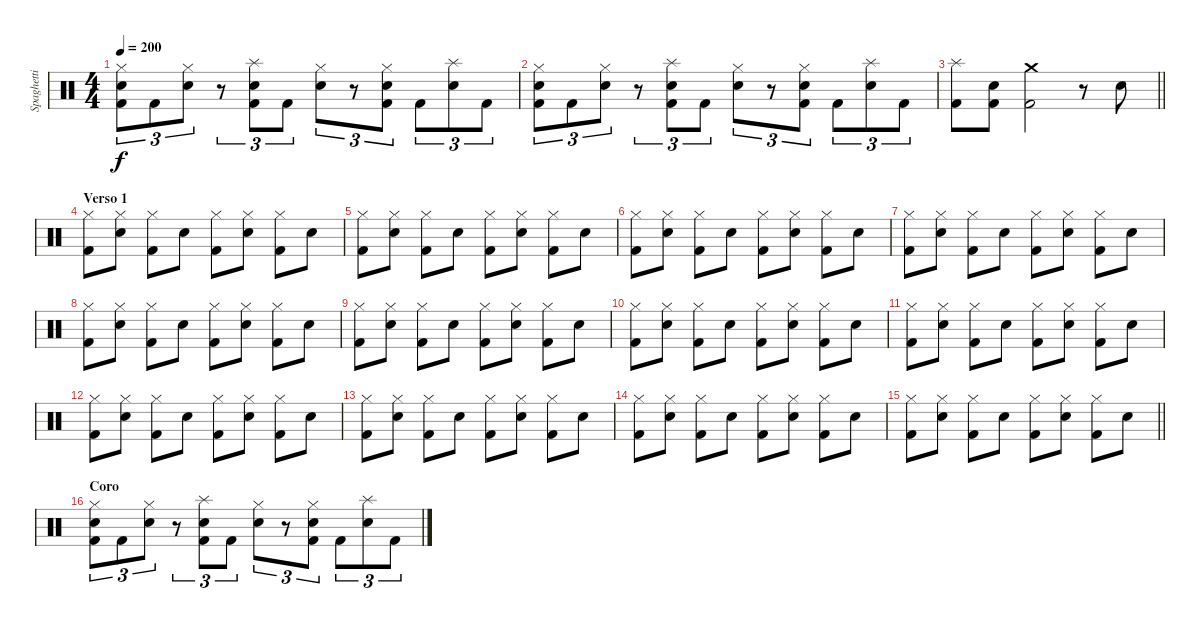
\track ("Spaghetti" "Spaghetti") {instrument percussion}
\staff {score}
\articulation defaults
\ts (4 4)
\tempo 200
\clef neutral
\ks c
("Hi-Hat (closed)" "Snare (hit) 2" "Kick (hit) 2").8{tu (3 2) dy f} "Kick (hit) 2".8{tu (3 2)} ("Hi-Hat (closed)" "Snare (hit) 2").8{tu (3 2)} r.8{tu (3 2)} ("Splash (hit)" "Snare (hit) 2" "Kick (hit) 2").8{tu (3 2)} "Kick (hit) 2".8{tu (3 2)} ("Hi-Hat (closed)" "Snare (hit) 2").8{tu (3 2)} r.8{tu (3 2)} ("Hi-Hat (closed)" "Snare (hit) 2" "Kick (hit) 2").8{tu (3 2)} "Kick (hit) 2".8{tu (3 2)} ("Splash (hit)" "Snare (hit) 2").8{tu (3 2)} "Kick (hit) 2".8{tu (3 2)} |
("Hi-Hat (closed)" "Snare (hit) 2" "Kick (hit) 2").8{tu (3 2)} "Kick (hit) 2".8{tu (3 2)} ("Hi-Hat (closed)" "Snare (hit) 2").8{tu (3 2)} r.8{tu (3 2)} ("Splash (hit)" "Snare (hit) 2" "Kick (hit) 2").8{tu (3 2)} "Kick (hit) 2".8{tu (3 2)} ("Hi-Hat (closed)" "Snare (hit) 2").8{tu (3 2)} r.8{tu (3 2)} ("Hi-Hat (closed)" "Snare (hit) 2" "Kick (hit) 2").8{tu (3 2)} "Kick (hit) 2".8{tu (3 2)} ("Splash (hit)" "Snare (hit) 2").8{tu (3 2)} "Kick (hit) 2".8{tu (3 2)} |
\barLineRight lightlight
("Splash (hit)" "Kick (hit) 2").8 ("Snare (hit)" "Kick (hit) 2").8 ("Crash medium (hit)" "Kick (hit) 2").2 r.8 "Snare (hit) 2".8 |
\section ("" "Verso 1")
("Hi-Hat (closed)" "Kick (hit) 2").8 ("Hi-Hat (closed)" "Snare (hit) 2").8 ("Hi-Hat (closed)" "Kick (hit) 2").8 "Snare (hit) 2".8 ("Hi-Hat (closed)" "Kick (hit) 2").8 ("Hi-Hat (closed)" "Snare (hit) 2").8 ("Hi-Hat (closed)" "Kick (hit) 2").8 "Snare (hit) 2".8 |
("Hi-Hat (closed)" "Kick (hit) 2").8 ("Hi-Hat (closed)" "Snare (hit) 2").8 ("Hi-Hat (closed)" "Kick (hit) 2").8 "Snare (hit) 2".8 ("Hi-Hat (closed)" "Kick (hit) 2").8 ("Hi-Hat (closed)" "Snare (hit) 2").8 ("Hi-Hat (closed)" "Kick (hit) 2").8 "Snare (hit) 2".8 |
("Hi-Hat (closed)" "Kick (hit) 2").8 ("Hi-Hat (closed)" "Snare (hit) 2").8 ("Hi-Hat (closed)" "Kick (hit) 2").8 "Snare (hit) 2".8 ("Hi-Hat (closed)" "Kick (hit) 2").8 ("Hi-Hat (closed)" "Snare (hit) 2").8 ("Hi-Hat (closed)" "Kick (hit) 2").8 "Snare (hit) 2".8 |
("Hi-Hat (closed)" "Kick (hit) 2").8 ("Hi-Hat (closed)" "Snare (hit) 2").8 ("Hi-Hat (closed)" "Kick (hit) 2").8 "Snare (hit) 2".8 ("Hi-Hat (closed)" "Kick (hit) 2").8 ("Hi-Hat (closed)" "Snare (hit) 2").8 ("Hi-Hat (closed)" "Kick (hit) 2").8 "Snare (hit) 2".8 |
("Hi-Hat (closed)" "Kick (hit) 2").8 ("Hi-Hat (closed)" "Snare (hit) 2").8 ("Hi-Hat (closed)" "Kick (hit) 2").8 "Snare (hit) 2".8 ("Hi-Hat (closed)" "Kick (hit) 2").8 ("Hi-Hat (closed)" "Snare (hit) 2").8 ("Hi-Hat (closed)" "Kick (hit) 2").8 "Snare (hit) 2".8 |
("Hi-Hat (closed)" "Kick (hit) 2").8 ("Hi-Hat (closed)" "Snare (hit) 2").8 ("Hi-Hat (closed)" "Kick (hit) 2").8 "Snare (hit) 2".8 ("Hi-Hat (closed)" "Kick (hit) 2").8 ("Hi-Hat (closed)" "Snare (hit) 2").8 ("Hi-Hat (closed)" "Kick (hit) 2").8 "Snare (hit) 2".8 |
("Hi-Hat (closed)" "Kick (hit) 2").8 ("Hi-Hat (closed)" "Snare (hit) 2").8 ("Hi-Hat (closed)" "Kick (hit) 2").8 "Snare (hit) 2".8 ("Hi-Hat (closed)" "Kick (hit) 2").8 ("Hi-Hat (closed)" "Snare (hit) 2").8 ("Hi-Hat (closed)" "Kick (hit) 2").8 "Snare (hit) 2".8 |
("Hi-Hat (closed)" "Kick (hit) 2").8 ("Hi-Hat (closed)" "Snare (hit) 2").8 ("Hi-Hat (closed)" "Kick (hit) 2").8 "Snare (hit) 2".8 ("Hi-Hat (closed)" "Kick (hit) 2").8 ("Hi-Hat (closed)" "Snare (hit) 2").8 ("Hi-Hat (closed)" "Kick (hit) 2").8 "Snare (hit) 2".8 |
("Hi-Hat (closed)" "Kick (hit) 2").8 ("Hi-Hat (closed)" "Snare (hit) 2").8 ("Hi-Hat (closed)" "Kick (hit) 2").8 "Snare (hit) 2".8 ("Hi-Hat (closed)" "Kick (hit) 2").8 ("Hi-Hat (closed)" "Snare (hit) 2").8 ("Hi-Hat (closed)" "Kick (hit) 2").8 "Snare (hit) 2".8 |
("Hi-Hat (closed)" "Kick (hit) 2").8 ("Hi-Hat (closed)" "Snare (hit) 2").8 ("Hi-Hat (closed)" "Kick (hit) 2").8 "Snare (hit) 2".8 ("Hi-Hat (closed)" "Kick (hit) 2").8 ("Hi-Hat (closed)" "Snare (hit) 2").8 ("Hi-Hat (closed)" "Kick (hit) 2").8 "Snare (hit) 2".8 |
("Hi-Hat (closed)" "Kick (hit) 2").8 ("Hi-Hat (closed)" "Snare (hit) 2").8 ("Hi-Hat (closed)" "Kick (hit) 2").8 "Snare (hit) 2".8 ("Hi-Hat (closed)" "Kick (hit) 2").8 ("Hi-Hat (closed)" "Snare (hit) 2").8 ("Hi-Hat (closed)" "Kick (hit) 2").8 "Snare (hit) 2".8 |
\barLineRight lightlight
("Hi-Hat (closed)" "Kick (hit) 2").8 ("Hi-Hat (closed)" "Snare (hit) 2").8 ("Hi-Hat (closed)" "Kick (hit) 2").8 "Snare (hit) 2".8 ("Hi-Hat (closed)" "Kick (hit) 2").8 ("Hi-Hat (closed)" "Snare (hit) 2").8 ("Hi-Hat (closed)" "Kick (hit) 2").8 "Snare (hit) 2".8 |
\section ("" "Coro")
("Hi-Hat (closed)" "Snare (hit) 2" "Kick (hit) 2").8{tu (3 2)} "Kick (hit) 2".8{tu (3 2)} ("Hi-Hat (closed)" "Snare (hit) 2").8{tu (3 2)} r.8{tu (3 2)} ("Splash (hit)" "Snare (hit) 2" "Kick (hit) 2").8{tu (3 2)} "Kick (hit) 2".8{tu (3 2)} ("Hi-Hat (closed)" "Snare (hit) 2").8{tu (3 2)} r.8{tu (3 2)} ("Hi-Hat (closed)" "Snare (hit) 2" "Kick (hit) 2").8{tu (3 2)} "Kick (hit) 2".8{tu (3 2)} ("Splash (hit)" "Snare (hit) 2").8{tu (3 2)} "Kick (hit) 2".8{tu (3 2)}
